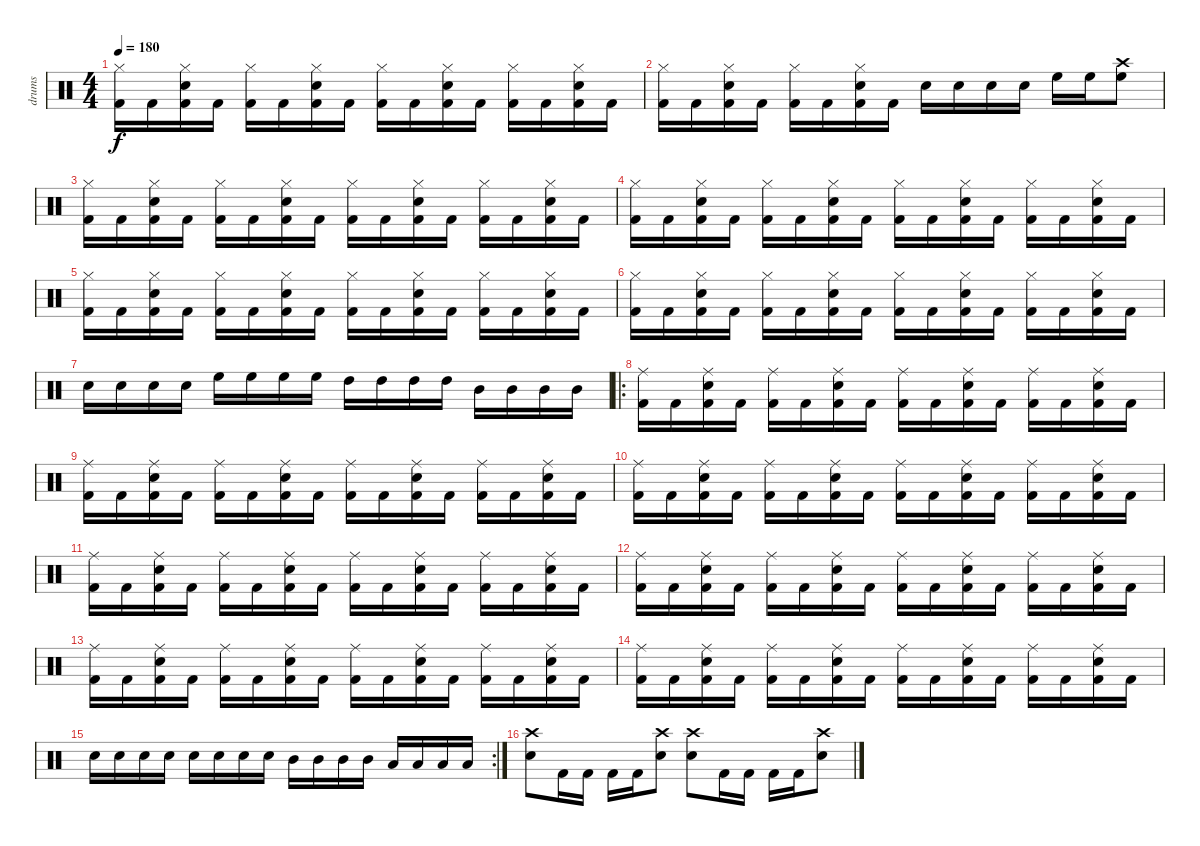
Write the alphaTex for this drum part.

\track ("drums" "drums") {instrument percussion}
\staff {score}
\articulation defaults
\ts (4 4)
\tempo 180
\clef neutral
\ks c
("Hi-Hat (closed)" "Kick (hit) 2").16{dy f} "Kick (hit) 2".16 ("Snare (hit) 2" "Hi-Hat (closed)" "Kick (hit) 2").16 "Kick (hit) 2".16 ("Hi-Hat (closed)" "Kick (hit) 2").16 "Kick (hit) 2".16 ("Snare (hit) 2" "Hi-Hat (closed)" "Kick (hit) 2").16 "Kick (hit) 2".16 ("Hi-Hat (closed)" "Kick (hit) 2").16 "Kick (hit) 2".16 ("Snare (hit) 2" "Hi-Hat (closed)" "Kick (hit) 2").16 "Kick (hit) 2".16 ("Hi-Hat (closed)" "Kick (hit) 2").16 "Kick (hit) 2".16 ("Snare (hit) 2" "Hi-Hat (closed)" "Kick (hit) 2").16 "Kick (hit) 2".16 |
("Hi-Hat (closed)" "Kick (hit) 2").16 "Kick (hit) 2".16 ("Snare (hit) 2" "Hi-Hat (closed)" "Kick (hit) 2").16 "Kick (hit) 2".16 ("Hi-Hat (closed)" "Kick (hit) 2").16 "Kick (hit) 2".16 ("Snare (hit) 2" "Hi-Hat (closed)" "Kick (hit) 2").16 "Kick (hit) 2".16 "Snare (hit) 2".16 "Snare (hit) 2".16 "Snare (hit) 2".16 "Snare (hit) 2".16 "High Floor Tom (hit)".16 "High Floor Tom (hit)".16 ("Crash high (hit)" "High Floor Tom (hit)").8 |
("Hi-Hat (closed)" "Kick (hit) 2").16 "Kick (hit) 2".16 ("Snare (hit) 2" "Hi-Hat (closed)" "Kick (hit) 2").16 "Kick (hit) 2".16 ("Hi-Hat (closed)" "Kick (hit) 2").16 "Kick (hit) 2".16 ("Snare (hit) 2" "Hi-Hat (closed)" "Kick (hit) 2").16 "Kick (hit) 2".16 ("Hi-Hat (closed)" "Kick (hit) 2").16 "Kick (hit) 2".16 ("Snare (hit) 2" "Hi-Hat (closed)" "Kick (hit) 2").16 "Kick (hit) 2".16 ("Hi-Hat (closed)" "Kick (hit) 2").16 "Kick (hit) 2".16 ("Snare (hit) 2" "Hi-Hat (closed)" "Kick (hit) 2").16 "Kick (hit) 2".16 |
("Hi-Hat (closed)" "Kick (hit) 2").16 "Kick (hit) 2".16 ("Snare (hit) 2" "Hi-Hat (closed)" "Kick (hit) 2").16 "Kick (hit) 2".16 ("Hi-Hat (closed)" "Kick (hit) 2").16 "Kick (hit) 2".16 ("Snare (hit) 2" "Hi-Hat (closed)" "Kick (hit) 2").16 "Kick (hit) 2".16 ("Hi-Hat (closed)" "Kick (hit) 2").16 "Kick (hit) 2".16 ("Snare (hit) 2" "Hi-Hat (closed)" "Kick (hit) 2").16 "Kick (hit) 2".16 ("Hi-Hat (closed)" "Kick (hit) 2").16 "Kick (hit) 2".16 ("Snare (hit) 2" "Hi-Hat (closed)" "Kick (hit) 2").16 "Kick (hit) 2".16 |
("Hi-Hat (closed)" "Kick (hit) 2").16 "Kick (hit) 2".16 ("Snare (hit) 2" "Hi-Hat (closed)" "Kick (hit) 2").16 "Kick (hit) 2".16 ("Hi-Hat (closed)" "Kick (hit) 2").16 "Kick (hit) 2".16 ("Snare (hit) 2" "Hi-Hat (closed)" "Kick (hit) 2").16 "Kick (hit) 2".16 ("Hi-Hat (closed)" "Kick (hit) 2").16 "Kick (hit) 2".16 ("Snare (hit) 2" "Hi-Hat (closed)" "Kick (hit) 2").16 "Kick (hit) 2".16 ("Hi-Hat (closed)" "Kick (hit) 2").16 "Kick (hit) 2".16 ("Snare (hit) 2" "Hi-Hat (closed)" "Kick (hit) 2").16 "Kick (hit) 2".16 |
("Hi-Hat (closed)" "Kick (hit) 2").16 "Kick (hit) 2".16 ("Snare (hit) 2" "Hi-Hat (closed)" "Kick (hit) 2").16 "Kick (hit) 2".16 ("Hi-Hat (closed)" "Kick (hit) 2").16 "Kick (hit) 2".16 ("Snare (hit) 2" "Hi-Hat (closed)" "Kick (hit) 2").16 "Kick (hit) 2".16 ("Hi-Hat (closed)" "Kick (hit) 2").16 "Kick (hit) 2".16 ("Snare (hit) 2" "Hi-Hat (closed)" "Kick (hit) 2").16 "Kick (hit) 2".16 ("Hi-Hat (closed)" "Kick (hit) 2").16 "Kick (hit) 2".16 ("Snare (hit) 2" "Hi-Hat (closed)" "Kick (hit) 2").16 "Kick (hit) 2".16 |
"Snare (hit) 2".16 "Snare (hit) 2".16 "Snare (hit) 2".16 "Snare (hit) 2".16 "High Floor Tom (hit)".16 "High Floor Tom (hit)".16 "High Floor Tom (hit)".16 "High Floor Tom (hit)".16 "High Tom (hit)".16 "High Tom (hit)".16 "High Tom (hit)".16 "High Tom (hit)".16 "Mid Tom (hit)".16 "Mid Tom (hit)".16 "Mid Tom (hit)".16 "Mid Tom (hit)".16 |
\ro
("Ride (middle)" "Kick (hit) 2").16 "Kick (hit) 2".16 ("Snare (hit) 2" "Ride (middle)" "Kick (hit) 2").16 "Kick (hit) 2".16 ("Ride (middle)" "Kick (hit) 2").16 "Kick (hit) 2".16 ("Snare (hit) 2" "Ride (middle)" "Kick (hit) 2").16 "Kick (hit) 2".16 ("Ride (middle)" "Kick (hit) 2").16 "Kick (hit) 2".16 ("Snare (hit) 2" "Ride (middle)" "Kick (hit) 2").16 "Kick (hit) 2".16 ("Ride (middle)" "Kick (hit) 2").16 "Kick (hit) 2".16 ("Snare (hit) 2" "Ride (middle)" "Kick (hit) 2").16 "Kick (hit) 2".16 |
("Ride (middle)" "Kick (hit) 2").16 "Kick (hit) 2".16 ("Snare (hit) 2" "Ride (middle)" "Kick (hit) 2").16 "Kick (hit) 2".16 ("Ride (middle)" "Kick (hit) 2").16 "Kick (hit) 2".16 ("Snare (hit) 2" "Ride (middle)" "Kick (hit) 2").16 "Kick (hit) 2".16 ("Ride (middle)" "Kick (hit) 2").16 "Kick (hit) 2".16 ("Snare (hit) 2" "Ride (middle)" "Kick (hit) 2").16 "Kick (hit) 2".16 ("Ride (middle)" "Kick (hit) 2").16 "Kick (hit) 2".16 ("Snare (hit) 2" "Ride (middle)" "Kick (hit) 2").16 "Kick (hit) 2".16 |
("Ride (middle)" "Kick (hit) 2").16 "Kick (hit) 2".16 ("Snare (hit) 2" "Ride (middle)" "Kick (hit) 2").16 "Kick (hit) 2".16 ("Ride (middle)" "Kick (hit) 2").16 "Kick (hit) 2".16 ("Snare (hit) 2" "Ride (middle)" "Kick (hit) 2").16 "Kick (hit) 2".16 ("Ride (middle)" "Kick (hit) 2").16 "Kick (hit) 2".16 ("Snare (hit) 2" "Ride (middle)" "Kick (hit) 2").16 "Kick (hit) 2".16 ("Ride (middle)" "Kick (hit) 2").16 "Kick (hit) 2".16 ("Snare (hit) 2" "Ride (middle)" "Kick (hit) 2").16 "Kick (hit) 2".16 |
("Ride (middle)" "Kick (hit) 2").16 "Kick (hit) 2".16 ("Snare (hit) 2" "Ride (middle)" "Kick (hit) 2").16 "Kick (hit) 2".16 ("Ride (middle)" "Kick (hit) 2").16 "Kick (hit) 2".16 ("Snare (hit) 2" "Ride (middle)" "Kick (hit) 2").16 "Kick (hit) 2".16 ("Ride (middle)" "Kick (hit) 2").16 "Kick (hit) 2".16 ("Snare (hit) 2" "Ride (middle)" "Kick (hit) 2").16 "Kick (hit) 2".16 ("Ride (middle)" "Kick (hit) 2").16 "Kick (hit) 2".16 ("Snare (hit) 2" "Ride (middle)" "Kick (hit) 2").16 "Kick (hit) 2".16 |
("Ride (middle)" "Kick (hit) 2").16 "Kick (hit) 2".16 ("Snare (hit) 2" "Ride (middle)" "Kick (hit) 2").16 "Kick (hit) 2".16 ("Ride (middle)" "Kick (hit) 2").16 "Kick (hit) 2".16 ("Snare (hit) 2" "Ride (middle)" "Kick (hit) 2").16 "Kick (hit) 2".16 ("Ride (middle)" "Kick (hit) 2").16 "Kick (hit) 2".16 ("Snare (hit) 2" "Ride (middle)" "Kick (hit) 2").16 "Kick (hit) 2".16 ("Ride (middle)" "Kick (hit) 2").16 "Kick (hit) 2".16 ("Snare (hit) 2" "Ride (middle)" "Kick (hit) 2").16 "Kick (hit) 2".16 |
("Ride (middle)" "Kick (hit) 2").16 "Kick (hit) 2".16 ("Snare (hit) 2" "Ride (middle)" "Kick (hit) 2").16 "Kick (hit) 2".16 ("Ride (middle)" "Kick (hit) 2").16 "Kick (hit) 2".16 ("Snare (hit) 2" "Ride (middle)" "Kick (hit) 2").16 "Kick (hit) 2".16 ("Ride (middle)" "Kick (hit) 2").16 "Kick (hit) 2".16 ("Snare (hit) 2" "Ride (middle)" "Kick (hit) 2").16 "Kick (hit) 2".16 ("Ride (middle)" "Kick (hit) 2").16 "Kick (hit) 2".16 ("Snare (hit) 2" "Ride (middle)" "Kick (hit) 2").16 "Kick (hit) 2".16 |
("Ride (middle)" "Kick (hit) 2").16 "Kick (hit) 2".16 ("Snare (hit) 2" "Ride (middle)" "Kick (hit) 2").16 "Kick (hit) 2".16 ("Ride (middle)" "Kick (hit) 2").16 "Kick (hit) 2".16 ("Snare (hit) 2" "Ride (middle)" "Kick (hit) 2").16 "Kick (hit) 2".16 ("Ride (middle)" "Kick (hit) 2").16 "Kick (hit) 2".16 ("Snare (hit) 2" "Ride (middle)" "Kick (hit) 2").16 "Kick (hit) 2".16 ("Ride (middle)" "Kick (hit) 2").16 "Kick (hit) 2".16 ("Snare (hit) 2" "Ride (middle)" "Kick (hit) 2").16 "Kick (hit) 2".16 |
\rc 2 "Snare (hit) 2".16 "Snare (hit) 2".16 "Snare (hit) 2".16 "Snare (hit) 2".16 "Electric Snare (hit)".16 "Electric Snare (hit)".16 "Electric Snare (hit)".16 "Electric Snare (hit)".16 "Mid Tom (hit)".16 "Mid Tom (hit)".16 "Mid Tom (hit)".16 "Mid Tom (hit)".16 "Low Tom (hit)".16 "Low Tom (hit)".16 "Low Tom (hit)".16 "Low Tom (hit)".16
|
("Crash high (hit)" "Snare (hit) 2").8 "Kick (hit) 2".16 "Kick (hit) 2".16 "Kick (hit) 2".16 "Kick (hit) 2".16 ("Crash high (hit)" "Snare (hit) 2").8 ("Crash high (hit)" "Snare (hit) 2").8 "Kick (hit) 2".16 "Kick (hit) 2".16 "Kick (hit) 2".16 "Kick (hit) 2".16 ("Crash high (hit)" "Snare (hit) 2").8
